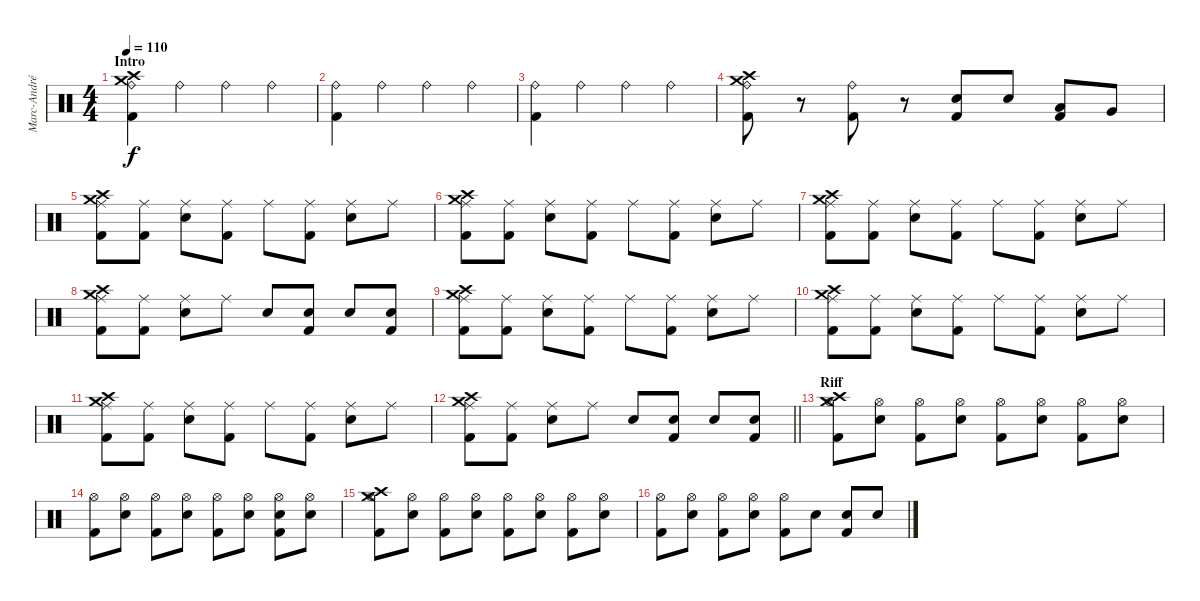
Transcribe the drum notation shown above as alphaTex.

\track ("Marc-André Barabé" "Marc-André") {instrument percussion}
\staff {score}
\articulation defaults
\ts (4 4)
\section ("" "Intro")
\tempo 110
\clef neutral
\ks c
("Crash high (hit)" "Crash medium (hit)" "Ride (bell)" "Kick (hit) 2").4{dy f} "Ride (bell)".4 "Ride (bell)".4 "Ride (bell)".4 |
("Ride (bell)" "Kick (hit) 2").4 "Ride (bell)".4 "Ride (bell)".4 "Ride (bell)".4 |
("Ride (bell)" "Kick (hit) 2").4 "Ride (bell)".4 "Ride (bell)".4 "Ride (bell)".4 |
("Crash high (hit)" "Crash medium (hit)" "Ride (bell)" "Kick (hit) 2").8 r.8 ("Ride (bell)" "Kick (hit) 2").8 r.8 ("Electric Snare (hit)"{tr (4 32)} "Kick (hit) 2").8 "Electric Snare (hit)"{tr (4 32)}.8 ("Low Tom (hit)"{tr (4 32)} "Kick (hit) 2").8 "Very Low Tom (hit)"{tr (4 32)}.8 |
("Crash high (hit)" "Crash medium (hit)" "Ride (middle)" "Kick (hit) 2").8 ("Ride (middle)" "Kick (hit) 2"{tr (4 32)}).8 ("Ride (middle)" "Electric Snare (hit)").8 ("Ride (middle)" "Kick (hit) 2").8 "Ride (middle)".8 ("Ride (middle)" "Kick (hit) 2"{tr (4 32)}).8 ("Ride (middle)" "Electric Snare (hit)").8 "Ride (middle)".8 |
("Crash high (hit)" "Crash medium (hit)" "Ride (middle)" "Kick (hit) 2").8 ("Ride (middle)" "Kick (hit) 2"{tr (4 32)}).8 ("Ride (middle)" "Electric Snare (hit)").8 ("Ride (middle)" "Kick (hit) 2").8 "Ride (middle)".8 ("Ride (middle)" "Kick (hit) 2"{tr (4 32)}).8 ("Ride (middle)" "Electric Snare (hit)").8 "Ride (middle)".8 |
("Crash high (hit)" "Crash medium (hit)" "Ride (middle)" "Kick (hit) 2").8 ("Ride (middle)" "Kick (hit) 2"{tr (4 32)}).8 ("Ride (middle)" "Electric Snare (hit)").8 ("Ride (middle)" "Kick (hit) 2").8 "Ride (middle)".8 ("Ride (middle)" "Kick (hit) 2"{tr (4 32)}).8 ("Ride (middle)" "Electric Snare (hit)").8 "Ride (middle)".8 |
("Crash high (hit)" "Crash medium (hit)" "Ride (middle)" "Kick (hit) 2").8 ("Ride (middle)" "Kick (hit) 2"{tr (4 32)}).8 ("Ride (middle)" "Electric Snare (hit)").8 "Ride (middle)".8 "Electric Snare (hit)".8 ("Electric Snare (hit)" "Kick (hit) 2").8 "Electric Snare (hit)"{tr (4 32)}.8 ("Electric Snare (hit)"{tr (4 32)} "Kick (hit) 2").8 |
("Crash high (hit)" "Crash medium (hit)" "Ride (middle)" "Kick (hit) 2").8 ("Ride (middle)" "Kick (hit) 2"{tr (4 32)}).8 ("Ride (middle)" "Electric Snare (hit)").8 ("Ride (middle)" "Kick (hit) 2").8 "Ride (middle)".8 ("Ride (middle)" "Kick (hit) 2"{tr (4 32)}).8 ("Ride (middle)" "Electric Snare (hit)").8 "Ride (middle)".8 |
("Crash high (hit)" "Crash medium (hit)" "Ride (middle)" "Kick (hit) 2").8 ("Ride (middle)" "Kick (hit) 2"{tr (4 32)}).8 ("Ride (middle)" "Electric Snare (hit)").8 ("Ride (middle)" "Kick (hit) 2").8 "Ride (middle)".8 ("Ride (middle)" "Kick (hit) 2"{tr (4 32)}).8 ("Ride (middle)" "Electric Snare (hit)").8 "Ride (middle)".8 |
("Crash high (hit)" "Crash medium (hit)" "Ride (middle)" "Kick (hit) 2").8 ("Ride (middle)" "Kick (hit) 2"{tr (4 32)}).8 ("Ride (middle)" "Electric Snare (hit)").8 ("Ride (middle)" "Kick (hit) 2").8 "Ride (middle)".8 ("Ride (middle)" "Kick (hit) 2"{tr (4 32)}).8 ("Ride (middle)" "Electric Snare (hit)").8 "Ride (middle)".8 |
\barLineRight lightlight
("Crash high (hit)" "Crash medium (hit)" "Ride (middle)" "Kick (hit) 2").8 ("Ride (middle)" "Kick (hit) 2"{tr (4 32)}).8 ("Ride (middle)" "Electric Snare (hit)").8 "Ride (middle)".8 "Electric Snare (hit)"{tr (40 32)}.8 ("Electric Snare (hit)"{tr (40 32)} "Kick (hit) 2").8 "Electric Snare (hit)"{tr (40 32)}.8 ("Electric Snare (hit)"{tr (40 32)} "Kick (hit) 2").8 |
\section ("" "Riff")
("Crash high (hit)" "Crash medium (hit)" "Hi-Hat (open)" "Kick (hit) 2"{tr (2 32)}).8 ("Hi-Hat (open)" "Electric Snare (hit)").8 ("Hi-Hat (open)" "Kick (hit) 2"{tr (2 32)}).8 ("Hi-Hat (open)" "Electric Snare (hit)").8 ("Hi-Hat (open)" "Kick (hit) 2"{tr (2 32)}).8 ("Hi-Hat (open)" "Electric Snare (hit)").8 ("Hi-Hat (open)" "Kick (hit) 2"{tr (2 32)}).8 ("Hi-Hat (open)" "Electric Snare (hit)").8 |
("Hi-Hat (open)" "Kick (hit) 2"{tr (2 32)}).8 ("Hi-Hat (open)" "Electric Snare (hit)").8 ("Hi-Hat (open)" "Kick (hit) 2"{tr (2 32)}).8 ("Hi-Hat (open)" "Electric Snare (hit)").8 ("Hi-Hat (open)" "Kick (hit) 2"{tr (2 32)}).8 ("Hi-Hat (open)" "Electric Snare (hit)").8 ("Hi-Hat (open)" "Electric Snare (hit)" "Kick (hit) 2"{tr (2 32)}).8 ("Hi-Hat (open)" "Electric Snare (hit)").8 |
("Crash high (hit)" "Crash medium (hit)" "Hi-Hat (open)" "Kick (hit) 2"{tr (2 32)}).8 ("Hi-Hat (open)" "Electric Snare (hit)").8 ("Hi-Hat (open)" "Kick (hit) 2"{tr (2 32)}).8 ("Hi-Hat (open)" "Electric Snare (hit)").8 ("Hi-Hat (open)" "Kick (hit) 2"{tr (2 32)}).8 ("Hi-Hat (open)" "Electric Snare (hit)").8 ("Hi-Hat (open)" "Kick (hit) 2"{tr (2 32)}).8 ("Hi-Hat (open)" "Electric Snare (hit)").8 |
("Hi-Hat (open)" "Kick (hit) 2"{tr (2 32)}).8 ("Hi-Hat (open)" "Electric Snare (hit)").8 ("Hi-Hat (open)" "Kick (hit) 2"{tr (2 32)}).8 ("Hi-Hat (open)" "Electric Snare (hit)").8 ("Hi-Hat (open)" "Kick (hit) 2"{tr (2 32)}).8 "Electric Snare (hit)"{tr (40 32)}.8 ("Electric Snare (hit)"{tr (40 32)} "Kick (hit) 2"{tr (2 32)}).8 "Electric Snare (hit)"{tr (40 32)}.8
